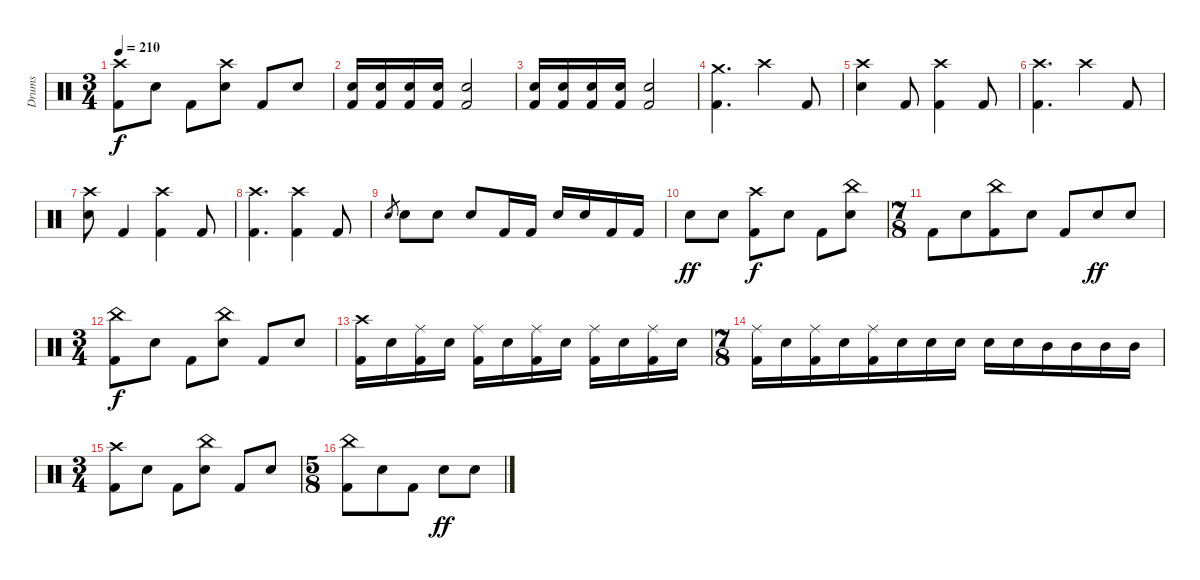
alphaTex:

\track ("Drums" "Drums") {instrument percussion}
\staff {score}
\articulation defaults
\ts (3 4)
\tempo 210
\clef neutral
\ks c
("Crash high (hit)" "Kick (hit) 2").8{dy f} "Electric Snare (hit)".8 "Kick (hit) 2".8 ("Crash high (hit)" "Electric Snare (hit)").8 "Kick (hit) 2".8 "Electric Snare (hit)".8 |
("Electric Snare (hit)" "Kick (hit) 2").16 ("Electric Snare (hit)" "Kick (hit) 2").16 ("Electric Snare (hit)" "Kick (hit) 2").16 ("Electric Snare (hit)" "Kick (hit) 2").16 ("Electric Snare (hit)" "Kick (hit) 2").2 |
("Electric Snare (hit)" "Kick (hit) 2").16 ("Electric Snare (hit)" "Kick (hit) 2").16 ("Electric Snare (hit)" "Kick (hit) 2").16 ("Electric Snare (hit)" "Kick (hit) 2").16 ("Electric Snare (hit)" "Kick (hit) 2").2 |
("Crash medium (hit)" "Kick (hit) 2").4{d} "Crash high (hit)".4 "Kick (hit) 2".8 |
("Crash high (hit)" "Electric Snare (hit)").4 "Kick (hit) 2".8 ("Crash high (hit)" "Kick (hit) 2").4 "Kick (hit) 2".8 |
("Crash high (hit)" "Kick (hit) 2").4{d} "Crash high (hit)".4 "Kick (hit) 2".8 |
("Crash high (hit)" "Electric Snare (hit)").8 "Kick (hit) 2".4 ("Crash high (hit)" "Kick (hit) 2").4 "Kick (hit) 2".8 |
("Crash high (hit)" "Kick (hit) 2").4{d} ("Crash high (hit)" "Kick (hit) 2").4 "Kick (hit) 2".8 |
"Electric Snare (hit)".8{gr} "Electric Snare (hit)".8 "Electric Snare (hit)".8 "Electric Snare (hit)".8 "Kick (hit) 2".16 "Kick (hit) 2".16 "Electric Snare (hit)".16 "Electric Snare (hit)".16 "Kick (hit) 2".16 "Kick (hit) 2".16 |
"Electric Snare (hit)".8{dy ff} "Electric Snare (hit)".8 ("Crash high (hit)" "Kick (hit) 2").8{dy f} "Electric Snare (hit)".8 "Kick (hit) 2".8 ("China (hit)" "Electric Snare (hit)").8 |
\ts (7 8)
"Kick (hit) 2".8 "Electric Snare (hit)".8 ("China (hit)" "Kick (hit) 2").8 "Electric Snare (hit)".8 "Kick (hit) 2".8 "Electric Snare (hit)".8{dy ff} "Electric Snare (hit)".8 |
\ts (3 4)
("China (hit)" "Kick (hit) 2").8{dy f} "Electric Snare (hit)".8 "Kick (hit) 2".8 ("China (hit)" "Electric Snare (hit)").8 "Kick (hit) 2".8 "Electric Snare (hit)".8 |
("Crash high (hit)" "Kick (hit) 2").16 "Electric Snare (hit)".16 ("Ride (middle)" "Kick (hit) 2").16 "Electric Snare (hit)".16 ("Ride (middle)" "Kick (hit) 2").16 "Electric Snare (hit)".16 ("Ride (middle)" "Kick (hit) 2").16 "Electric Snare (hit)".16 ("Ride (middle)" "Kick (hit) 2").16 "Electric Snare (hit)".16 ("Ride (middle)" "Kick (hit) 2").16 "Electric Snare (hit)".16 |
\ts (7 8)
("Ride (middle)" "Kick (hit) 2").16 "Electric Snare (hit)".16 ("Ride (middle)" "Kick (hit) 2").16 "Electric Snare (hit)".16 ("Ride (middle)" "Kick (hit) 2").16 "Electric Snare (hit)".16 "Electric Snare (hit)".16 "Electric Snare (hit)".16 "Electric Snare (hit)".16 "Electric Snare (hit)".16 "Mid Tom (hit)".16 "Mid Tom (hit)".16 "Mid Tom (hit)".16 "Mid Tom (hit)".16 |
\ts (3 4)
("Crash high (hit)" "Kick (hit) 2").8 "Electric Snare (hit)".8 "Kick (hit) 2".8 ("China (hit)" "Electric Snare (hit)").8 "Kick (hit) 2".8 "Electric Snare (hit)".8 |
\ts (5 8)
("China (hit)" "Kick (hit) 2").8 "Electric Snare (hit)".8 "Kick (hit) 2".8 "Electric Snare (hit)".8{dy ff} "Electric Snare (hit)".8
